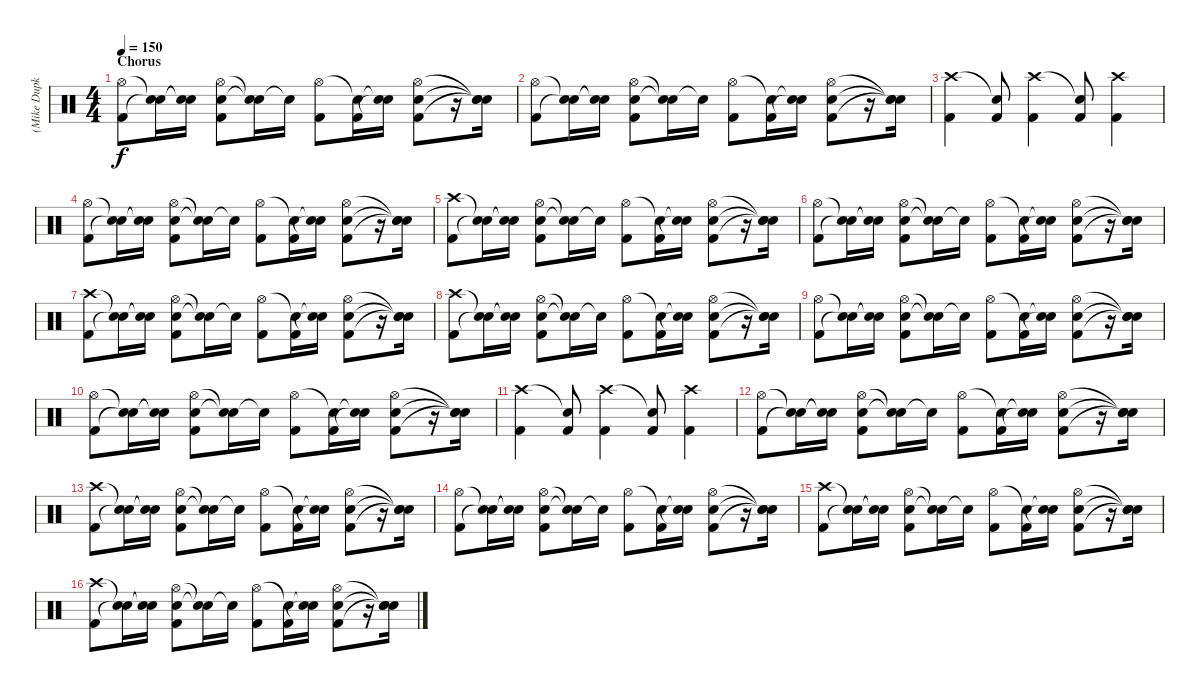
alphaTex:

\track ("(Mike Dupke) Drums" "(Mike Dupk") {instrument percussion}
\staff {score}
\articulation defaults
\ts (4 4)
\section ("" "Chorus")
\tempo 150
\clef neutral
\ks c
("Hi-Hat (open)" "Kick (hit) 2").8{dy f} ("Snare (hit)"{t} "Snare (hit)"{t}).16 ("Snare (hit)"{t} "Snare (hit)"{t}).16 ("Hi-Hat (open)" "Snare (hit) 2" "Kick (hit) 2").8 ("Snare (hit)"{t} "Snare (hit)"{t}).16 "Snare (hit)"{t}.16 ("Hi-Hat (open)" "Kick (hit) 2").8 ("Snare (hit)"{t} "Kick (hit) 2").16 ("Snare (hit)"{t} "Snare (hit)"{t}).16 ("Hi-Hat (open)" "Snare (hit) 2" "Kick (hit) 2").8 r.16 ("Snare (hit)"{t} "Snare (hit)"{t} "Snare (hit)"{t}).16 |
("Hi-Hat (open)" "Kick (hit) 2").8 ("Snare (hit)"{t} "Snare (hit)"{t}).16 ("Snare (hit)"{t} "Snare (hit)"{t}).16 ("Hi-Hat (open)" "Snare (hit) 2" "Kick (hit) 2").8 ("Snare (hit)"{t} "Snare (hit)"{t}).16 "Snare (hit)"{t}.16 ("Hi-Hat (open)" "Kick (hit) 2").8 ("Snare (hit)"{t} "Kick (hit) 2").16 ("Snare (hit)"{t} "Snare (hit)"{t}).16 ("Hi-Hat (open)" "Snare (hit) 2" "Kick (hit) 2").8 r.16 ("Snare (hit)"{t} "Snare (hit)"{t} "Snare (hit)"{t}).16 |
("Crash high (hit)" "Kick (hit) 2").4 ("Snare (hit)"{t} "Kick (hit) 2").8 ("Crash high (hit)" "Kick (hit) 2").4 ("Snare (hit)"{t} "Kick (hit) 2").8 ("Crash high (hit)" "Kick (hit) 2").4 |
("Hi-Hat (open)" "Kick (hit) 2").8 ("Snare (hit)"{t} "Snare (hit)"{t}).16 ("Snare (hit)"{t} "Snare (hit)"{t}).16 ("Hi-Hat (open)" "Snare (hit) 2" "Kick (hit) 2").8 ("Snare (hit)"{t} "Snare (hit)"{t}).16 "Snare (hit)"{t}.16 ("Hi-Hat (open)" "Kick (hit) 2").8 ("Snare (hit)"{t} "Kick (hit) 2").16 ("Snare (hit)"{t} "Snare (hit)"{t}).16 ("Hi-Hat (open)" "Snare (hit) 2" "Kick (hit) 2").8 r.16 ("Snare (hit)"{t} "Snare (hit)"{t} "Snare (hit)"{t}).16 |
("Crash high (hit)" "Kick (hit) 2").8 ("Snare (hit)"{t} "Snare (hit)"{t}).16 ("Snare (hit)"{t} "Snare (hit)"{t}).16 ("Hi-Hat (open)" "Snare (hit) 2" "Kick (hit) 2").8 ("Snare (hit)"{t} "Snare (hit)"{t}).16 "Snare (hit)"{t}.16 ("Hi-Hat (open)" "Kick (hit) 2").8 ("Snare (hit)"{t} "Kick (hit) 2").16 ("Snare (hit)"{t} "Snare (hit)"{t}).16 ("Hi-Hat (open)" "Snare (hit) 2" "Kick (hit) 2").8 r.16 ("Snare (hit)"{t} "Snare (hit)"{t} "Snare (hit)"{t}).16 |
("Hi-Hat (open)" "Kick (hit) 2").8 ("Snare (hit)"{t} "Snare (hit)"{t}).16 ("Snare (hit)"{t} "Snare (hit)"{t}).16 ("Hi-Hat (open)" "Snare (hit) 2" "Kick (hit) 2").8 ("Snare (hit)"{t} "Snare (hit)"{t}).16 "Snare (hit)"{t}.16 ("Hi-Hat (open)" "Kick (hit) 2").8 ("Snare (hit)"{t} "Kick (hit) 2").16 ("Snare (hit)"{t} "Snare (hit)"{t}).16 ("Hi-Hat (open)" "Snare (hit) 2" "Kick (hit) 2").8 r.16 ("Snare (hit)"{t} "Snare (hit)"{t} "Snare (hit)"{t}).16 |
("Crash high (hit)" "Kick (hit) 2").8 ("Snare (hit)"{t} "Snare (hit)"{t}).16 ("Snare (hit)"{t} "Snare (hit)"{t}).16 ("Hi-Hat (open)" "Snare (hit) 2" "Kick (hit) 2").8 ("Snare (hit)"{t} "Snare (hit)"{t}).16 "Snare (hit)"{t}.16 ("Hi-Hat (open)" "Kick (hit) 2").8 ("Snare (hit)"{t} "Kick (hit) 2").16 ("Snare (hit)"{t} "Snare (hit)"{t}).16 ("Hi-Hat (open)" "Snare (hit) 2" "Kick (hit) 2").8 r.16 ("Snare (hit)"{t} "Snare (hit)"{t} "Snare (hit)"{t}).16 |
("Crash high (hit)" "Kick (hit) 2").8 ("Snare (hit)"{t} "Snare (hit)"{t}).16 ("Snare (hit)"{t} "Snare (hit)"{t}).16 ("Hi-Hat (open)" "Snare (hit) 2" "Kick (hit) 2").8 ("Snare (hit)"{t} "Snare (hit)"{t}).16 "Snare (hit)"{t}.16 ("Hi-Hat (open)" "Kick (hit) 2").8 ("Snare (hit)"{t} "Kick (hit) 2").16 ("Snare (hit)"{t} "Snare (hit)"{t}).16 ("Hi-Hat (open)" "Snare (hit) 2" "Kick (hit) 2").8 r.16 ("Snare (hit)"{t} "Snare (hit)"{t} "Snare (hit)"{t}).16 |
("Hi-Hat (open)" "Kick (hit) 2").8 ("Snare (hit)"{t} "Snare (hit)"{t}).16 ("Snare (hit)"{t} "Snare (hit)"{t}).16 ("Hi-Hat (open)" "Snare (hit) 2" "Kick (hit) 2").8 ("Snare (hit)"{t} "Snare (hit)"{t}).16 "Snare (hit)"{t}.16 ("Hi-Hat (open)" "Kick (hit) 2").8 ("Snare (hit)"{t} "Kick (hit) 2").16 ("Snare (hit)"{t} "Snare (hit)"{t}).16 ("Hi-Hat (open)" "Snare (hit) 2" "Kick (hit) 2").8 r.16 ("Snare (hit)"{t} "Snare (hit)"{t} "Snare (hit)"{t}).16 |
("Hi-Hat (open)" "Kick (hit) 2").8 ("Snare (hit)"{t} "Snare (hit)"{t}).16 ("Snare (hit)"{t} "Snare (hit)"{t}).16 ("Hi-Hat (open)" "Snare (hit) 2" "Kick (hit) 2").8 ("Snare (hit)"{t} "Snare (hit)"{t}).16 "Snare (hit)"{t}.16 ("Hi-Hat (open)" "Kick (hit) 2").8 ("Snare (hit)"{t} "Kick (hit) 2").16 ("Snare (hit)"{t} "Snare (hit)"{t}).16 ("Hi-Hat (open)" "Snare (hit) 2" "Kick (hit) 2").8 r.16 ("Snare (hit)"{t} "Snare (hit)"{t} "Snare (hit)"{t}).16 |
("Crash high (hit)" "Kick (hit) 2").4 ("Snare (hit)"{t} "Kick (hit) 2").8 ("Crash high (hit)" "Kick (hit) 2").4 ("Snare (hit)"{t} "Kick (hit) 2").8 ("Crash high (hit)" "Kick (hit) 2").4 |
("Hi-Hat (open)" "Kick (hit) 2").8 ("Snare (hit)"{t} "Snare (hit)"{t}).16 ("Snare (hit)"{t} "Snare (hit)"{t}).16 ("Hi-Hat (open)" "Snare (hit) 2" "Kick (hit) 2").8 ("Snare (hit)"{t} "Snare (hit)"{t}).16 "Snare (hit)"{t}.16 ("Hi-Hat (open)" "Kick (hit) 2").8 ("Snare (hit)"{t} "Kick (hit) 2").16 ("Snare (hit)"{t} "Snare (hit)"{t}).16 ("Hi-Hat (open)" "Snare (hit) 2" "Kick (hit) 2").8 r.16 ("Snare (hit)"{t} "Snare (hit)"{t} "Snare (hit)"{t}).16 |
("Crash high (hit)" "Kick (hit) 2").8 ("Snare (hit)"{t} "Snare (hit)"{t}).16 ("Snare (hit)"{t} "Snare (hit)"{t}).16 ("Hi-Hat (open)" "Snare (hit) 2" "Kick (hit) 2").8 ("Snare (hit)"{t} "Snare (hit)"{t}).16 "Snare (hit)"{t}.16 ("Hi-Hat (open)" "Kick (hit) 2").8 ("Snare (hit)"{t} "Kick (hit) 2").16 ("Snare (hit)"{t} "Snare (hit)"{t}).16 ("Hi-Hat (open)" "Snare (hit) 2" "Kick (hit) 2").8 r.16 ("Snare (hit)"{t} "Snare (hit)"{t} "Snare (hit)"{t}).16 |
("Hi-Hat (open)" "Kick (hit) 2").8 ("Snare (hit)"{t} "Snare (hit)"{t}).16 ("Snare (hit)"{t} "Snare (hit)"{t}).16 ("Hi-Hat (open)" "Snare (hit) 2" "Kick (hit) 2").8 ("Snare (hit)"{t} "Snare (hit)"{t}).16 "Snare (hit)"{t}.16 ("Hi-Hat (open)" "Kick (hit) 2").8 ("Snare (hit)"{t} "Kick (hit) 2").16 ("Snare (hit)"{t} "Snare (hit)"{t}).16 ("Hi-Hat (open)" "Snare (hit) 2" "Kick (hit) 2").8 r.16 ("Snare (hit)"{t} "Snare (hit)"{t} "Snare (hit)"{t}).16 |
("Crash high (hit)" "Kick (hit) 2").8 ("Snare (hit)"{t} "Snare (hit)"{t}).16 ("Snare (hit)"{t} "Snare (hit)"{t}).16 ("Hi-Hat (open)" "Snare (hit) 2" "Kick (hit) 2").8 ("Snare (hit)"{t} "Snare (hit)"{t}).16 "Snare (hit)"{t}.16 ("Hi-Hat (open)" "Kick (hit) 2").8 ("Snare (hit)"{t} "Kick (hit) 2").16 ("Snare (hit)"{t} "Snare (hit)"{t}).16 ("Hi-Hat (open)" "Snare (hit) 2" "Kick (hit) 2").8 r.16 ("Snare (hit)"{t} "Snare (hit)"{t} "Snare (hit)"{t}).16 |
("Crash high (hit)" "Kick (hit) 2").8 ("Snare (hit)"{t} "Snare (hit)"{t}).16 ("Snare (hit)"{t} "Snare (hit)"{t}).16 ("Hi-Hat (open)" "Snare (hit) 2" "Kick (hit) 2").8 ("Snare (hit)"{t} "Snare (hit)"{t}).16 "Snare (hit)"{t}.16 ("Hi-Hat (open)" "Kick (hit) 2").8 ("Snare (hit)"{t} "Kick (hit) 2").16 ("Snare (hit)"{t} "Snare (hit)"{t}).16 ("Hi-Hat (open)" "Snare (hit) 2" "Kick (hit) 2").8 r.16 ("Snare (hit)"{t} "Snare (hit)"{t} "Snare (hit)"{t}).16
